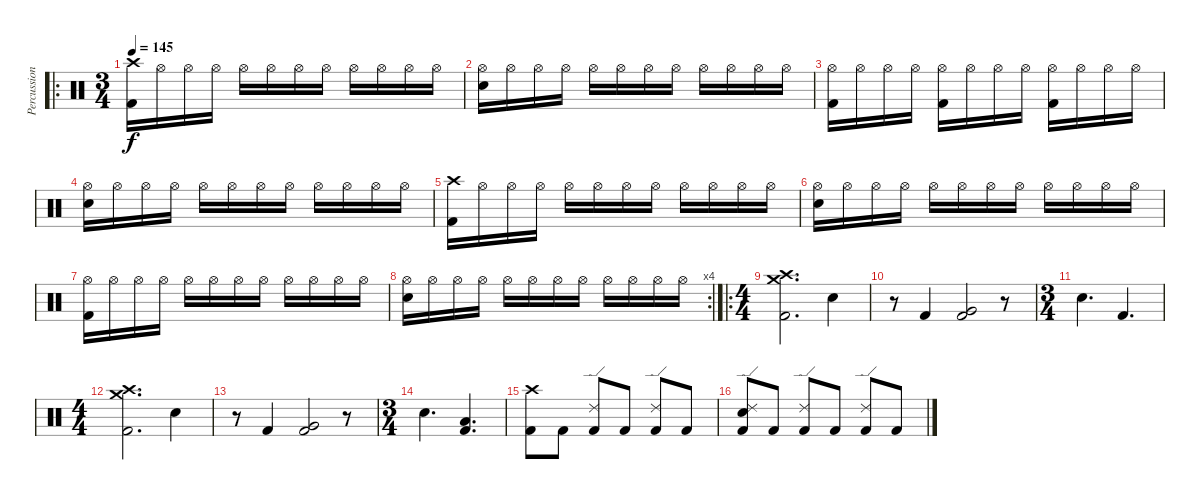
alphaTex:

\track ("Percussion" "Percussion") {instrument percussion}
\staff {score}
\articulation defaults
\ro
\ts (3 4)
\tempo 145
\clef neutral
\ks c
("Crash high (hit)" "Kick (hit) 2").16{dy f} "Hi-Hat (open)".16 "Hi-Hat (open)".16 "Hi-Hat (open)".16 "Hi-Hat (open)".16 "Hi-Hat (open)".16 "Hi-Hat (open)".16 "Hi-Hat (open)".16 "Hi-Hat (open)".16 "Hi-Hat (open)".16 "Hi-Hat (open)".16 "Hi-Hat (open)".16 |
("Hi-Hat (open)" "Electric Snare (hit)").16 "Hi-Hat (open)".16 "Hi-Hat (open)".16 "Hi-Hat (open)".16 "Hi-Hat (open)".16 "Hi-Hat (open)".16 "Hi-Hat (open)".16 "Hi-Hat (open)".16 "Hi-Hat (open)".16 "Hi-Hat (open)".16 "Hi-Hat (open)".16 "Hi-Hat (open)".16 |
("Hi-Hat (open)" "Kick (hit) 2").16 "Hi-Hat (open)".16 "Hi-Hat (open)".16 "Hi-Hat (open)".16 ("Hi-Hat (open)" "Kick (hit) 2").16 "Hi-Hat (open)".16 "Hi-Hat (open)".16 "Hi-Hat (open)".16 ("Hi-Hat (open)" "Kick (hit) 2").16 "Hi-Hat (open)".16 "Hi-Hat (open)".16 "Hi-Hat (open)".16 |
("Hi-Hat (open)" "Electric Snare (hit)").16 "Hi-Hat (open)".16 "Hi-Hat (open)".16 "Hi-Hat (open)".16 "Hi-Hat (open)".16 "Hi-Hat (open)".16 "Hi-Hat (open)".16 "Hi-Hat (open)".16 "Hi-Hat (open)".16 "Hi-Hat (open)".16 "Hi-Hat (open)".16 "Hi-Hat (open)".16 |
("Crash high (hit)" "Kick (hit) 2").16 "Hi-Hat (open)".16 "Hi-Hat (open)".16 "Hi-Hat (open)".16 "Hi-Hat (open)".16 "Hi-Hat (open)".16 "Hi-Hat (open)".16 "Hi-Hat (open)".16 "Hi-Hat (open)".16 "Hi-Hat (open)".16 "Hi-Hat (open)".16 "Hi-Hat (open)".16 |
("Hi-Hat (open)" "Electric Snare (hit)").16 "Hi-Hat (open)".16 "Hi-Hat (open)".16 "Hi-Hat (open)".16 "Hi-Hat (open)".16 "Hi-Hat (open)".16 "Hi-Hat (open)".16 "Hi-Hat (open)".16 "Hi-Hat (open)".16 "Hi-Hat (open)".16 "Hi-Hat (open)".16 "Hi-Hat (open)".16 |
("Hi-Hat (open)" "Kick (hit) 2").16 "Hi-Hat (open)".16 "Hi-Hat (open)".16 "Hi-Hat (open)".16 "Hi-Hat (open)".16 "Hi-Hat (open)".16 "Hi-Hat (open)".16 "Hi-Hat (open)".16 "Hi-Hat (open)".16 "Hi-Hat (open)".16 "Hi-Hat (open)".16 "Hi-Hat (open)".16 |
\rc 4
("Hi-Hat (open)" "Electric Snare (hit)").16 "Hi-Hat (open)".16 "Hi-Hat (open)".16 "Hi-Hat (open)".16 "Hi-Hat (open)".16 "Hi-Hat (open)".16 "Hi-Hat (open)".16 "Hi-Hat (open)".16 "Hi-Hat (open)".16 "Hi-Hat (open)".16 "Hi-Hat (open)".16 "Hi-Hat (open)".16 |
\ro
\ts (4 4)
("Crash high (hit)" "Crash medium (hit)" "Kick (hit) 2").2{d} "Electric Snare (hit)".4 |
r.8 "Kick (hit) 2".4 ("Very Low Tom (hit)" "Kick (hit) 2").2 r.8 |
\ts (3 4)
"Electric Snare (hit)".4{d} "Kick (hit) 2".4{d} |
\ts (4 4)
("Crash high (hit)" "Crash medium (hit)" "Kick (hit) 2").2{d} "Electric Snare (hit)".4 |
r.8 "Kick (hit) 2".4 ("Very Low Tom (hit)" "Kick (hit) 2").2 r.8 |
\ts (3 4)
"Electric Snare (hit)".4{d} ("Low Tom (hit)" "Kick (hit) 2").4{d} |
("Crash high (hit)" "Kick (hit) 2").8 "Kick (hit) 2".8 ("Ride (edge) 2" "Kick (hit) 2").8 "Kick (hit) 2".8 ("Ride (edge) 2" "Kick (hit) 2").8 "Kick (hit) 2".8 |
("Ride (edge) 2" "Electric Snare (hit)" "Kick (hit) 2").8 "Kick (hit) 2".8 ("Ride (edge) 2" "Kick (hit) 2").8 "Kick (hit) 2".8 ("Ride (edge) 2" "Kick (hit) 2").8 "Kick (hit) 2".8
